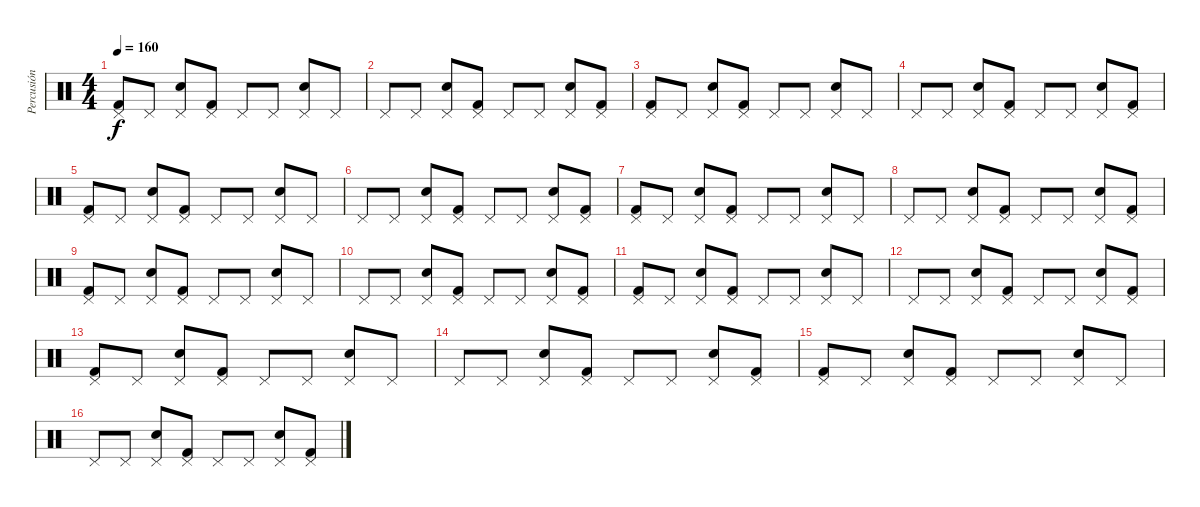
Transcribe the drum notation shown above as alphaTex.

\track ("Percusión" "Percusión") {instrument percussion}
\staff {score}
\articulation defaults
\ts (4 4)
\tempo 160
\clef neutral
\ks c
("Pedal Hi-Hat (hit)" "Kick (hit) 2").8{dy f} "Pedal Hi-Hat (hit)".8 ("Pedal Hi-Hat (hit)" "Electric Snare (hit)").8 ("Pedal Hi-Hat (hit)" "Kick (hit) 2").8 "Pedal Hi-Hat (hit)".8 "Pedal Hi-Hat (hit)".8 ("Pedal Hi-Hat (hit)" "Electric Snare (hit)").8 "Pedal Hi-Hat (hit)".8 |
"Pedal Hi-Hat (hit)".8 "Pedal Hi-Hat (hit)".8 ("Pedal Hi-Hat (hit)" "Electric Snare (hit)").8 ("Pedal Hi-Hat (hit)" "Kick (hit) 2").8 "Pedal Hi-Hat (hit)".8 "Pedal Hi-Hat (hit)".8 ("Pedal Hi-Hat (hit)" "Electric Snare (hit)").8 ("Pedal Hi-Hat (hit)" "Kick (hit) 2").8 |
("Pedal Hi-Hat (hit)" "Kick (hit) 2").8 "Pedal Hi-Hat (hit)".8 ("Pedal Hi-Hat (hit)" "Electric Snare (hit)").8 ("Pedal Hi-Hat (hit)" "Kick (hit) 2").8 "Pedal Hi-Hat (hit)".8 "Pedal Hi-Hat (hit)".8 ("Pedal Hi-Hat (hit)" "Electric Snare (hit)").8 "Pedal Hi-Hat (hit)".8 |
"Pedal Hi-Hat (hit)".8 "Pedal Hi-Hat (hit)".8 ("Pedal Hi-Hat (hit)" "Electric Snare (hit)").8 ("Pedal Hi-Hat (hit)" "Kick (hit) 2").8 "Pedal Hi-Hat (hit)".8 "Pedal Hi-Hat (hit)".8 ("Pedal Hi-Hat (hit)" "Electric Snare (hit)").8 ("Pedal Hi-Hat (hit)" "Kick (hit) 2").8 |
("Pedal Hi-Hat (hit)" "Kick (hit) 2").8 "Pedal Hi-Hat (hit)".8 ("Pedal Hi-Hat (hit)" "Electric Snare (hit)").8 ("Pedal Hi-Hat (hit)" "Kick (hit) 2").8 "Pedal Hi-Hat (hit)".8 "Pedal Hi-Hat (hit)".8 ("Pedal Hi-Hat (hit)" "Electric Snare (hit)").8 "Pedal Hi-Hat (hit)".8 |
"Pedal Hi-Hat (hit)".8 "Pedal Hi-Hat (hit)".8 ("Pedal Hi-Hat (hit)" "Electric Snare (hit)").8 ("Pedal Hi-Hat (hit)" "Kick (hit) 2").8 "Pedal Hi-Hat (hit)".8 "Pedal Hi-Hat (hit)".8 ("Pedal Hi-Hat (hit)" "Electric Snare (hit)").8 ("Pedal Hi-Hat (hit)" "Kick (hit) 2").8 |
("Pedal Hi-Hat (hit)" "Kick (hit) 2").8 "Pedal Hi-Hat (hit)".8 ("Pedal Hi-Hat (hit)" "Electric Snare (hit)").8 ("Pedal Hi-Hat (hit)" "Kick (hit) 2").8 "Pedal Hi-Hat (hit)".8 "Pedal Hi-Hat (hit)".8 ("Pedal Hi-Hat (hit)" "Electric Snare (hit)").8 "Pedal Hi-Hat (hit)".8 |
"Pedal Hi-Hat (hit)".8 "Pedal Hi-Hat (hit)".8 ("Pedal Hi-Hat (hit)" "Electric Snare (hit)").8 ("Pedal Hi-Hat (hit)" "Kick (hit) 2").8 "Pedal Hi-Hat (hit)".8 "Pedal Hi-Hat (hit)".8 ("Pedal Hi-Hat (hit)" "Electric Snare (hit)").8 ("Pedal Hi-Hat (hit)" "Kick (hit) 2").8 |
("Pedal Hi-Hat (hit)" "Kick (hit) 2").8 "Pedal Hi-Hat (hit)".8 ("Pedal Hi-Hat (hit)" "Electric Snare (hit)").8 ("Pedal Hi-Hat (hit)" "Kick (hit) 2").8 "Pedal Hi-Hat (hit)".8 "Pedal Hi-Hat (hit)".8 ("Pedal Hi-Hat (hit)" "Electric Snare (hit)").8 "Pedal Hi-Hat (hit)".8 |
"Pedal Hi-Hat (hit)".8 "Pedal Hi-Hat (hit)".8 ("Pedal Hi-Hat (hit)" "Electric Snare (hit)").8 ("Pedal Hi-Hat (hit)" "Kick (hit) 2").8 "Pedal Hi-Hat (hit)".8 "Pedal Hi-Hat (hit)".8 ("Pedal Hi-Hat (hit)" "Electric Snare (hit)").8 ("Pedal Hi-Hat (hit)" "Kick (hit) 2").8 |
("Pedal Hi-Hat (hit)" "Kick (hit) 2").8 "Pedal Hi-Hat (hit)".8 ("Pedal Hi-Hat (hit)" "Electric Snare (hit)").8 ("Pedal Hi-Hat (hit)" "Kick (hit) 2").8 "Pedal Hi-Hat (hit)".8 "Pedal Hi-Hat (hit)".8 ("Pedal Hi-Hat (hit)" "Electric Snare (hit)").8 "Pedal Hi-Hat (hit)".8 |
"Pedal Hi-Hat (hit)".8 "Pedal Hi-Hat (hit)".8 ("Pedal Hi-Hat (hit)" "Electric Snare (hit)").8 ("Pedal Hi-Hat (hit)" "Kick (hit) 2").8 "Pedal Hi-Hat (hit)".8 "Pedal Hi-Hat (hit)".8 ("Pedal Hi-Hat (hit)" "Electric Snare (hit)").8 ("Pedal Hi-Hat (hit)" "Kick (hit) 2").8 |
("Pedal Hi-Hat (hit)" "Kick (hit) 2").8 "Pedal Hi-Hat (hit)".8 ("Pedal Hi-Hat (hit)" "Electric Snare (hit)").8 ("Pedal Hi-Hat (hit)" "Kick (hit) 2").8 "Pedal Hi-Hat (hit)".8 "Pedal Hi-Hat (hit)".8 ("Pedal Hi-Hat (hit)" "Electric Snare (hit)").8 "Pedal Hi-Hat (hit)".8 |
"Pedal Hi-Hat (hit)".8 "Pedal Hi-Hat (hit)".8 ("Pedal Hi-Hat (hit)" "Electric Snare (hit)").8 ("Pedal Hi-Hat (hit)" "Kick (hit) 2").8 "Pedal Hi-Hat (hit)".8 "Pedal Hi-Hat (hit)".8 ("Pedal Hi-Hat (hit)" "Electric Snare (hit)").8 ("Pedal Hi-Hat (hit)" "Kick (hit) 2").8 |
("Pedal Hi-Hat (hit)" "Kick (hit) 2").8 "Pedal Hi-Hat (hit)".8 ("Pedal Hi-Hat (hit)" "Electric Snare (hit)").8 ("Pedal Hi-Hat (hit)" "Kick (hit) 2").8 "Pedal Hi-Hat (hit)".8 "Pedal Hi-Hat (hit)".8 ("Pedal Hi-Hat (hit)" "Electric Snare (hit)").8 "Pedal Hi-Hat (hit)".8 |
"Pedal Hi-Hat (hit)".8 "Pedal Hi-Hat (hit)".8 ("Pedal Hi-Hat (hit)" "Electric Snare (hit)").8 ("Pedal Hi-Hat (hit)" "Kick (hit) 2").8 "Pedal Hi-Hat (hit)".8 "Pedal Hi-Hat (hit)".8 ("Pedal Hi-Hat (hit)" "Electric Snare (hit)").8 ("Pedal Hi-Hat (hit)" "Kick (hit) 2").8
